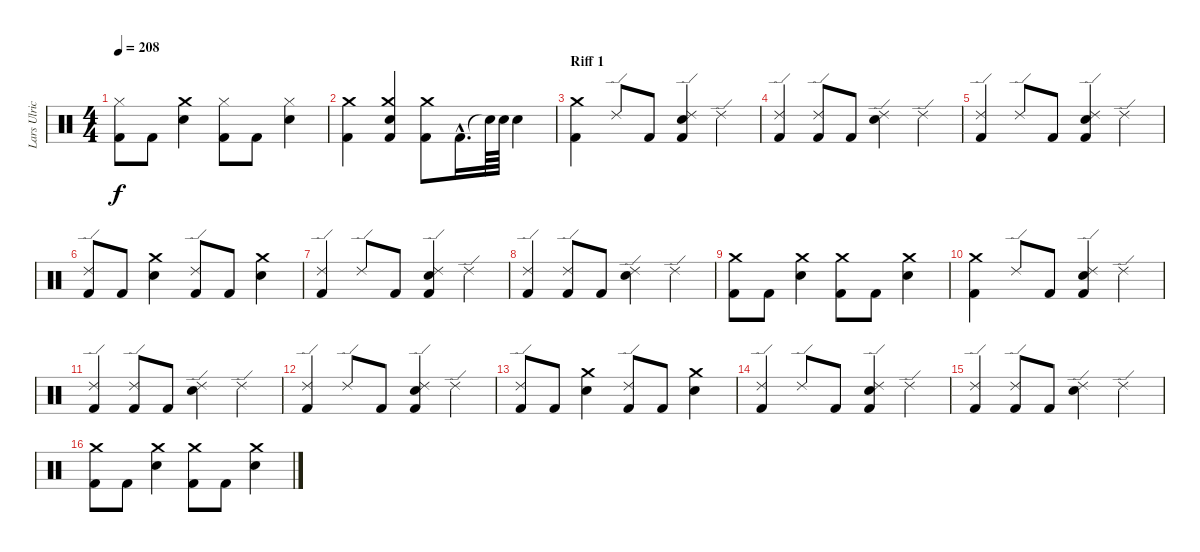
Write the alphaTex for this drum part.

\track ("Lars Ulrich (Drums)" "Lars Ulric") {instrument percussion}
\staff {score}
\articulation defaults
\ts (4 4)
\tempo 208
\clef neutral
\ks c
("Kick (hit) 2" "Hi-Hat (closed)").8{dy f} "Kick (hit) 2".8 ("Crash medium (hit)" "Snare (hit) 2").4 ("Kick (hit) 2" "Hi-Hat (closed)").8 "Kick (hit) 2".8 ("Snare (hit) 2" "Hi-Hat (closed)").4 |
("Kick (hit) 2" "Crash medium (hit)").4 ("Kick (hit) 2" "Snare (hit) 2" "Crash medium (hit)").4 ("Kick (hit) 2" "Crash medium (hit)").8 "Kick (hit) 2"{hac}.16{d} "Snare (hit)"{t}.64 "Snare (hit) 2".64 "Snare (hit) 2".4 |
\section ("" "Riff 1")
("Kick (hit) 2" "Crash medium (hit)").4 "Ride (edge) 2".8 "Kick (hit) 2".8 ("Kick (hit) 2" "Snare (hit) 2" "Ride (edge) 2").4 "Ride (edge) 2".4 |
("Kick (hit) 2" "Ride (edge) 2").4 ("Ride (edge) 2" "Kick (hit) 2").8 "Kick (hit) 2".8 ("Snare (hit) 2" "Ride (edge) 2").4 "Ride (edge) 2".4 |
("Kick (hit) 2" "Ride (edge) 2").4 "Ride (edge) 2".8 "Kick (hit) 2".8 ("Ride (edge) 2" "Snare (hit) 2" "Kick (hit) 2").4 "Ride (edge) 2".4 |
("Ride (edge) 2" "Kick (hit) 2").8 "Kick (hit) 2".8 ("Snare (hit) 2" "Crash medium (hit)").4 ("Ride (edge) 2" "Kick (hit) 2").8 "Kick (hit) 2".8 ("Snare (hit) 2" "Crash medium (hit)").4 |
("Ride (edge) 2" "Kick (hit) 2").4 "Ride (edge) 2".8 "Kick (hit) 2".8 ("Ride (edge) 2" "Snare (hit) 2" "Kick (hit) 2").4 "Ride (edge) 2".4 |
("Kick (hit) 2" "Ride (edge) 2").4 ("Ride (edge) 2" "Kick (hit) 2").8 "Kick (hit) 2".8 ("Snare (hit) 2" "Ride (edge) 2").4 "Ride (edge) 2".4 |
("Kick (hit) 2" "Crash medium (hit)").8 "Kick (hit) 2".8 ("Snare (hit) 2" "Crash medium (hit)").4 ("Kick (hit) 2" "Crash medium (hit)").8 "Kick (hit) 2".8 ("Snare (hit) 2" "Crash medium (hit)").4 |
("Kick (hit) 2" "Crash medium (hit)").4 "Ride (edge) 2".8 "Kick (hit) 2".8 ("Kick (hit) 2" "Snare (hit) 2" "Ride (edge) 2").4 "Ride (edge) 2".4 |
("Kick (hit) 2" "Ride (edge) 2").4 ("Ride (edge) 2" "Kick (hit) 2").8 "Kick (hit) 2".8 ("Snare (hit) 2" "Ride (edge) 2").4 "Ride (edge) 2".4 |
("Kick (hit) 2" "Ride (edge) 2").4 "Ride (edge) 2".8 "Kick (hit) 2".8 ("Ride (edge) 2" "Snare (hit) 2" "Kick (hit) 2").4 "Ride (edge) 2".4 |
("Ride (edge) 2" "Kick (hit) 2").8 "Kick (hit) 2".8 ("Snare (hit) 2" "Crash medium (hit)").4 ("Ride (edge) 2" "Kick (hit) 2").8 "Kick (hit) 2".8 ("Snare (hit) 2" "Crash medium (hit)").4 |
("Ride (edge) 2" "Kick (hit) 2").4 "Ride (edge) 2".8 "Kick (hit) 2".8 ("Ride (edge) 2" "Snare (hit) 2" "Kick (hit) 2").4 "Ride (edge) 2".4 |
("Kick (hit) 2" "Ride (edge) 2").4 ("Ride (edge) 2" "Kick (hit) 2").8 "Kick (hit) 2".8 ("Snare (hit) 2" "Ride (edge) 2").4 "Ride (edge) 2".4 |
("Kick (hit) 2" "Crash medium (hit)").8 "Kick (hit) 2".8 ("Snare (hit) 2" "Crash medium (hit)").4 ("Kick (hit) 2" "Crash medium (hit)").8 "Kick (hit) 2".8 ("Snare (hit) 2" "Crash medium (hit)").4
